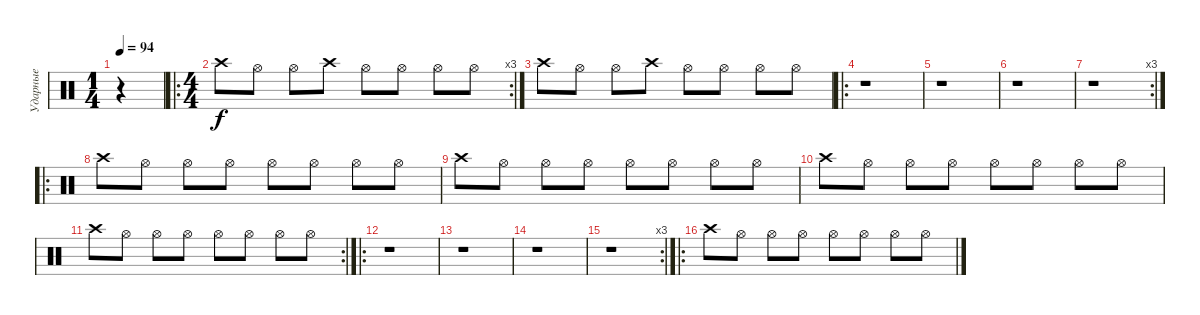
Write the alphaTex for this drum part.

\track ("Ударные" "Ударные") {instrument percussion}
\staff {score}
\articulation defaults
\ts (1 4)
\tempo 94
\clef neutral
\ks c
r.4{dy f} |
\ro
\rc 3
\ts (4 4)
"Crash high (hit)".8 "Hi-Hat (open)".8 "Hi-Hat (open)".8 "Crash high (hit)".8 "Hi-Hat (open)".8 "Hi-Hat (open)".8 "Hi-Hat (open)".8 "Hi-Hat (open)".8 |
"Crash high (hit)".8 "Hi-Hat (open)".8 "Hi-Hat (open)".8 "Crash high (hit)".8 "Hi-Hat (open)".8 "Hi-Hat (open)".8 "Hi-Hat (open)".8 "Hi-Hat (open)".8 |
\ro
r.1 |
r.1 |
r.1 |
\rc 3
r.1 |
\ro "Crash high (hit)".8 "Hi-Hat (open)".8 "Hi-Hat (open)".8 "Hi-Hat (open)".8 "Hi-Hat (open)".8 "Hi-Hat (open)".8 "Hi-Hat (open)".8 "Hi-Hat (open)".8
|
"Crash high (hit)".8 "Hi-Hat (open)".8 "Hi-Hat (open)".8 "Hi-Hat (open)".8 "Hi-Hat (open)".8 "Hi-Hat (open)".8 "Hi-Hat (open)".8 "Hi-Hat (open)".8 |
"Crash high (hit)".8 "Hi-Hat (open)".8 "Hi-Hat (open)".8 "Hi-Hat (open)".8 "Hi-Hat (open)".8 "Hi-Hat (open)".8 "Hi-Hat (open)".8 "Hi-Hat (open)".8 |
\rc 2 "Crash high (hit)".8 "Hi-Hat (open)".8 "Hi-Hat (open)".8 "Hi-Hat (open)".8 "Hi-Hat (open)".8 "Hi-Hat (open)".8 "Hi-Hat (open)".8 "Hi-Hat (open)".8
|
\ro
r.1 |
r.1 |
r.1 |
\rc 3
r.1 |
\ro "Crash high (hit)".8 "Hi-Hat (open)".8 "Hi-Hat (open)".8 "Hi-Hat (open)".8 "Hi-Hat (open)".8 "Hi-Hat (open)".8 "Hi-Hat (open)".8 "Hi-Hat (open)".8
